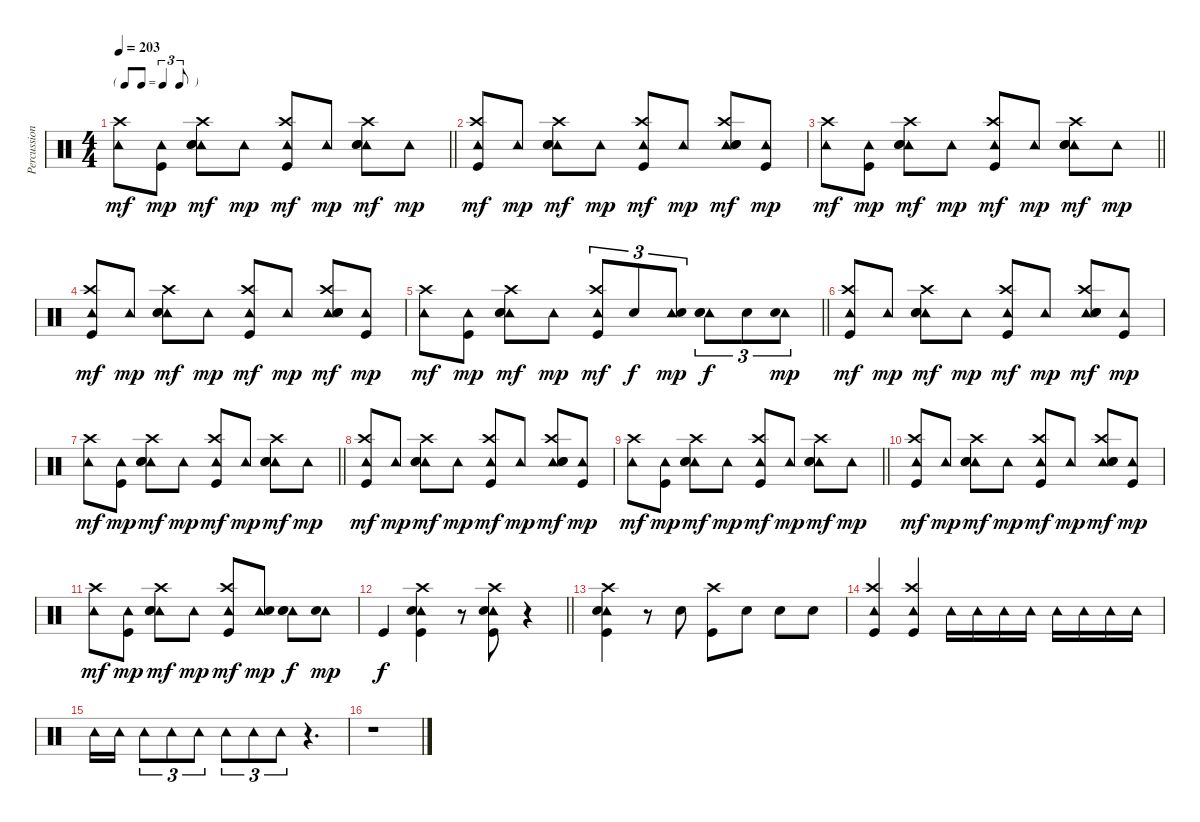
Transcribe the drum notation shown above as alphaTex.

\track ("Percussion" "Percussion") {instrument percussion}
\staff {score}
\articulation defaults
\ts (4 4)
\tf triplet8th
\tempo 203
\clef neutral
\barLineRight lightlight
\ks c
("Tambourine (hit)" "Crash high (hit)").8{dy mf} ("Tambourine (hit)" "Kick (hit)").8{dy mp} ("Tambourine (hit)" "Crash high (hit)" "Hand Clap (hit)" "Snare (hit) 2").8{dy mf} "Tambourine (hit)".8{dy mp} ("Tambourine (hit)" "Crash high (hit)" "Kick (hit)").8{dy mf} "Tambourine (hit)".8{dy mp} ("Tambourine (hit)" "Crash high (hit)" "Hand Clap (hit)" "Snare (hit) 2").8{dy mf} "Tambourine (hit)".8{dy mp} |
("Tambourine (hit)" "Crash high (hit)" "Kick (hit)").8{dy mf} "Tambourine (hit)".8{dy mp} ("Tambourine (hit)" "Crash high (hit)" "Hand Clap (hit)" "Snare (hit) 2").8{dy mf} "Tambourine (hit)".8{dy mp} ("Tambourine (hit)" "Crash high (hit)" "Kick (hit)").8{dy mf} "Tambourine (hit)".8{dy mp} ("Tambourine (hit)" "Crash high (hit)" "Hand Clap (hit)" "Snare (hit) 2").8{dy mf} ("Tambourine (hit)" "Kick (hit)").8{dy mp} |
\barLineRight lightlight
("Tambourine (hit)" "Crash high (hit)").8{dy mf} ("Tambourine (hit)" "Kick (hit)").8{dy mp} ("Tambourine (hit)" "Crash high (hit)" "Hand Clap (hit)" "Snare (hit) 2").8{dy mf} "Tambourine (hit)".8{dy mp} ("Tambourine (hit)" "Crash high (hit)" "Kick (hit)").8{dy mf} "Tambourine (hit)".8{dy mp} ("Tambourine (hit)" "Crash high (hit)" "Hand Clap (hit)" "Snare (hit) 2").8{dy mf} "Tambourine (hit)".8{dy mp} |
("Tambourine (hit)" "Crash high (hit)" "Kick (hit)").8{dy mf} "Tambourine (hit)".8{dy mp} ("Tambourine (hit)" "Crash high (hit)" "Hand Clap (hit)" "Snare (hit) 2").8{dy mf} "Tambourine (hit)".8{dy mp} ("Tambourine (hit)" "Crash high (hit)" "Kick (hit)").8{dy mf} "Tambourine (hit)".8{dy mp} ("Tambourine (hit)" "Crash high (hit)" "Hand Clap (hit)" "Snare (hit) 2").8{dy mf} ("Tambourine (hit)" "Kick (hit)").8{dy mp} |
\barLineRight lightlight
("Tambourine (hit)" "Crash high (hit)").8{dy mf} ("Tambourine (hit)" "Kick (hit)").8{dy mp} ("Tambourine (hit)" "Crash high (hit)" "Hand Clap (hit)" "Snare (hit) 2").8{dy mf} "Tambourine (hit)".8{dy mp} ("Tambourine (hit)" "Crash high (hit)" "Kick (hit)").8{tu (3 2) dy mf} "Snare (hit) 2".8{tu (3 2) dy f} ("Tambourine (hit)" "Snare (hit) 2").8{tu (3 2) dy mp} ("Tambourine (hit)" "Hand Clap (hit)" "Snare (hit) 2").8{tu (3 2) dy f} "Snare (hit) 2".8{tu (3 2)} ("Tambourine (hit)" "Snare (hit) 2").8{tu (3 2) dy mp} |
("Tambourine (hit)" "Crash high (hit)" "Kick (hit)").8{dy mf} "Tambourine (hit)".8{dy mp} ("Tambourine (hit)" "Crash high (hit)" "Hand Clap (hit)" "Snare (hit) 2").8{dy mf} "Tambourine (hit)".8{dy mp} ("Tambourine (hit)" "Crash high (hit)" "Kick (hit)").8{dy mf} "Tambourine (hit)".8{dy mp} ("Tambourine (hit)" "Crash high (hit)" "Hand Clap (hit)" "Snare (hit) 2").8{dy mf} ("Tambourine (hit)" "Kick (hit)").8{dy mp} |
\barLineRight lightlight
("Tambourine (hit)" "Crash high (hit)").8{dy mf} ("Tambourine (hit)" "Kick (hit)").8{dy mp} ("Tambourine (hit)" "Crash high (hit)" "Hand Clap (hit)" "Snare (hit) 2").8{dy mf} "Tambourine (hit)".8{dy mp} ("Tambourine (hit)" "Crash high (hit)" "Kick (hit)").8{dy mf} "Tambourine (hit)".8{dy mp} ("Tambourine (hit)" "Crash high (hit)" "Hand Clap (hit)" "Snare (hit) 2").8{dy mf} "Tambourine (hit)".8{dy mp} |
("Tambourine (hit)" "Crash high (hit)" "Kick (hit)").8{dy mf} "Tambourine (hit)".8{dy mp} ("Tambourine (hit)" "Crash high (hit)" "Hand Clap (hit)" "Snare (hit) 2").8{dy mf} "Tambourine (hit)".8{dy mp} ("Tambourine (hit)" "Crash high (hit)" "Kick (hit)").8{dy mf} "Tambourine (hit)".8{dy mp} ("Tambourine (hit)" "Crash high (hit)" "Hand Clap (hit)" "Snare (hit) 2").8{dy mf} ("Tambourine (hit)" "Kick (hit)").8{dy mp} |
\barLineRight lightlight
("Tambourine (hit)" "Crash high (hit)").8{dy mf} ("Tambourine (hit)" "Kick (hit)").8{dy mp} ("Tambourine (hit)" "Crash high (hit)" "Hand Clap (hit)" "Snare (hit) 2").8{dy mf} "Tambourine (hit)".8{dy mp} ("Tambourine (hit)" "Crash high (hit)" "Kick (hit)").8{dy mf} "Tambourine (hit)".8{dy mp} ("Tambourine (hit)" "Crash high (hit)" "Hand Clap (hit)" "Snare (hit) 2").8{dy mf} "Tambourine (hit)".8{dy mp} |
("Tambourine (hit)" "Crash high (hit)" "Kick (hit)").8{dy mf} "Tambourine (hit)".8{dy mp} ("Tambourine (hit)" "Crash high (hit)" "Hand Clap (hit)" "Snare (hit) 2").8{dy mf} "Tambourine (hit)".8{dy mp} ("Tambourine (hit)" "Crash high (hit)" "Kick (hit)").8{dy mf} "Tambourine (hit)".8{dy mp} ("Tambourine (hit)" "Crash high (hit)" "Hand Clap (hit)" "Snare (hit) 2").8{dy mf} ("Tambourine (hit)" "Kick (hit)").8{dy mp} |
("Tambourine (hit)" "Crash high (hit)").8{dy mf} ("Tambourine (hit)" "Kick (hit)").8{dy mp} ("Tambourine (hit)" "Crash high (hit)" "Hand Clap (hit)" "Snare (hit) 2").8{dy mf} "Tambourine (hit)".8{dy mp} ("Tambourine (hit)" "Crash high (hit)" "Kick (hit)").8{dy mf} ("Tambourine (hit)" "Snare (hit) 2").8{dy mp} ("Tambourine (hit)" "Hand Clap (hit)" "Snare (hit) 2").8{dy f} ("Tambourine (hit)" "Snare (hit) 2").8{dy mp} |
\barLineRight lightlight "Kick (hit)".4{dy f}
("Tambourine (hit)" "Crash high (hit)" "Snare (hit) 2" "Kick (hit)").4 r.8 ("Tambourine (hit)" "Crash high (hit)" "Snare (hit) 2" "Kick (hit)").8 r.4 |
("Tambourine (hit)" "Crash high (hit)" "Snare (hit) 2" "Kick (hit)").4 r.8 "Snare (hit) 2".8 ("Crash high (hit)" "Kick (hit)").8 "Snare (hit) 2".8 "Snare (hit) 2".8 "Snare (hit) 2".8 |
("Tambourine (hit)" "Crash high (hit)" "Kick (hit)").4 ("Tambourine (hit)" "Crash high (hit)" "Kick (hit)").4 "Tambourine (hit)".16 "Tambourine (hit)".16 "Tambourine (hit)".16 "Tambourine (hit)".16 "Tambourine (hit)".16 "Tambourine (hit)".16 "Tambourine (hit)".16 "Tambourine (hit)".16 |
"Tambourine (hit)".16 "Tambourine (hit)".16 "Tambourine (hit)".8{tu (3 2)} "Tambourine (hit)".8{tu (3 2)} "Tambourine (hit)".8{tu (3 2)} "Tambourine (hit)".8{tu (3 2)} "Tambourine (hit)".8{tu (3 2)} "Tambourine (hit)".8{tu (3 2)} r.4{d} |
r.1
